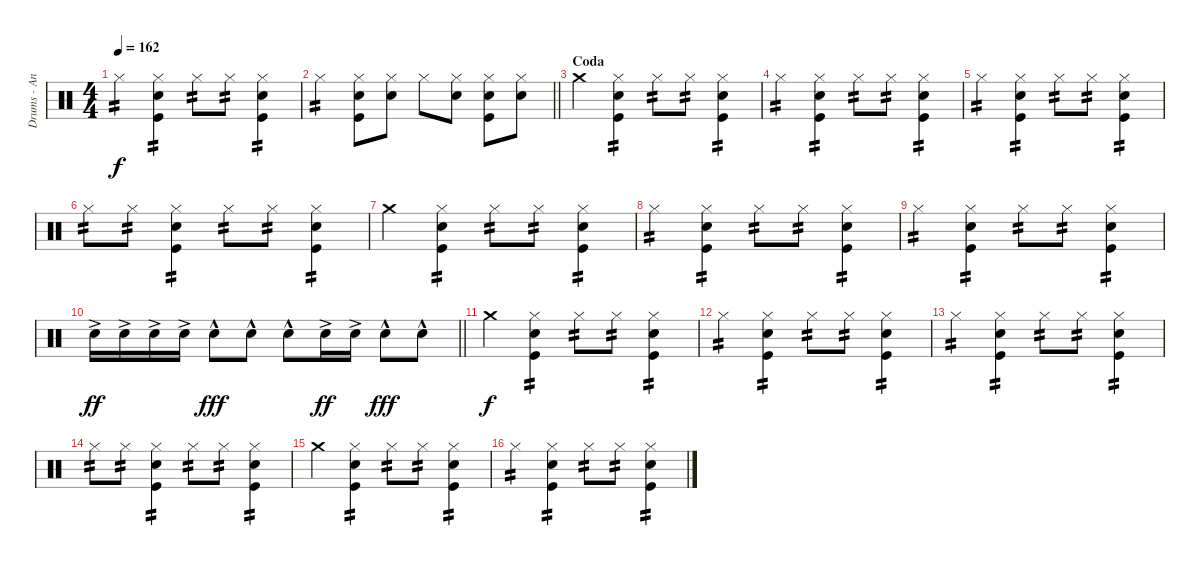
\track ("Drums - Andriushkin" "Drums - An") {instrument percussion}
\staff {score}
\articulation defaults
\ts (4 4)
\tempo 162
\clef neutral
\ks c "Hi-Hat (closed)".4{tp 2 dy f}
("Hi-Hat (closed)" "Electric Snare (hit)" "Kick (hit)").4{tp 2} "Hi-Hat (closed)".8{tp 2} "Hi-Hat (closed)".8{tp 2} ("Hi-Hat (closed)" "Electric Snare (hit)" "Kick (hit)").4{tp 2} |
\barLineRight lightlight "Hi-Hat (closed)".4{tp 2}
("Hi-Hat (closed)" "Electric Snare (hit)" "Kick (hit)").8 ("Hi-Hat (closed)" "Electric Snare (hit)").8 "Hi-Hat (closed)".8 ("Hi-Hat (closed)" "Electric Snare (hit)").8 ("Hi-Hat (closed)" "Electric Snare (hit)" "Kick (hit)").8 ("Hi-Hat (closed)" "Electric Snare (hit)").8 |
\section ("" "Coda")
"Crash medium (hit)".4 ("Hi-Hat (closed)" "Electric Snare (hit)" "Kick (hit)").4{tp 2} "Hi-Hat (closed)".8{tp 2} "Hi-Hat (closed)".8{tp 2} ("Hi-Hat (closed)" "Electric Snare (hit)" "Kick (hit)").4{tp 2} |
"Hi-Hat (closed)".4{tp 2} ("Hi-Hat (closed)" "Electric Snare (hit)" "Kick (hit)").4{tp 2} "Hi-Hat (closed)".8{tp 2} "Hi-Hat (closed)".8{tp 2} ("Hi-Hat (closed)" "Electric Snare (hit)" "Kick (hit)").4{tp 2} |
"Hi-Hat (closed)".4{tp 2} ("Hi-Hat (closed)" "Electric Snare (hit)" "Kick (hit)").4{tp 2} "Hi-Hat (closed)".8{tp 2} "Hi-Hat (closed)".8{tp 2} ("Hi-Hat (closed)" "Electric Snare (hit)" "Kick (hit)").4{tp 2} |
"Hi-Hat (closed)".8{tp 2} "Hi-Hat (closed)".8{tp 2} ("Hi-Hat (closed)" "Electric Snare (hit)" "Kick (hit)").4{tp 2} "Hi-Hat (closed)".8{tp 2} "Hi-Hat (closed)".8{tp 2} ("Hi-Hat (closed)" "Electric Snare (hit)" "Kick (hit)").4{tp 2} |
"Crash medium (hit)".4 ("Hi-Hat (closed)" "Electric Snare (hit)" "Kick (hit)").4{tp 2} "Hi-Hat (closed)".8{tp 2} "Hi-Hat (closed)".8{tp 2} ("Hi-Hat (closed)" "Electric Snare (hit)" "Kick (hit)").4{tp 2} |
"Hi-Hat (closed)".4{tp 2} ("Hi-Hat (closed)" "Electric Snare (hit)" "Kick (hit)").4{tp 2} "Hi-Hat (closed)".8{tp 2} "Hi-Hat (closed)".8{tp 2} ("Hi-Hat (closed)" "Electric Snare (hit)" "Kick (hit)").4{tp 2} |
"Hi-Hat (closed)".4{tp 2} ("Hi-Hat (closed)" "Electric Snare (hit)" "Kick (hit)").4{tp 2} "Hi-Hat (closed)".8{tp 2} "Hi-Hat (closed)".8{tp 2} ("Hi-Hat (closed)" "Electric Snare (hit)" "Kick (hit)").4{tp 2} |
\barLineRight lightlight "Electric Snare (hit)"{ac}.16{dy ff} "Electric Snare (hit)"{ac}.16 "Electric Snare (hit)"{ac}.16 "Electric Snare (hit)"{ac}.16 "Electric Snare (hit)"{hac}.8{dy fff} "Electric Snare (hit)"{hac}.8 "Electric Snare (hit)"{hac}.8 "Electric Snare (hit)"{ac}.16{dy ff} "Electric Snare (hit)"{ac}.16 "Electric Snare (hit)"{hac}.8{dy fff} "Electric Snare (hit)"{hac}.8
|
"Crash medium (hit)".4{dy f} ("Hi-Hat (closed)" "Electric Snare (hit)" "Kick (hit)").4{tp 2} "Hi-Hat (closed)".8{tp 2} "Hi-Hat (closed)".8{tp 2} ("Hi-Hat (closed)" "Electric Snare (hit)" "Kick (hit)").4{tp 2} |
"Hi-Hat (closed)".4{tp 2} ("Hi-Hat (closed)" "Electric Snare (hit)" "Kick (hit)").4{tp 2} "Hi-Hat (closed)".8{tp 2} "Hi-Hat (closed)".8{tp 2} ("Hi-Hat (closed)" "Electric Snare (hit)" "Kick (hit)").4{tp 2} |
"Hi-Hat (closed)".4{tp 2} ("Hi-Hat (closed)" "Electric Snare (hit)" "Kick (hit)").4{tp 2} "Hi-Hat (closed)".8{tp 2} "Hi-Hat (closed)".8{tp 2} ("Hi-Hat (closed)" "Electric Snare (hit)" "Kick (hit)").4{tp 2} |
"Hi-Hat (closed)".8{tp 2} "Hi-Hat (closed)".8{tp 2} ("Hi-Hat (closed)" "Electric Snare (hit)" "Kick (hit)").4{tp 2} "Hi-Hat (closed)".8{tp 2} "Hi-Hat (closed)".8{tp 2} ("Hi-Hat (closed)" "Electric Snare (hit)" "Kick (hit)").4{tp 2} |
"Crash medium (hit)".4 ("Hi-Hat (closed)" "Electric Snare (hit)" "Kick (hit)").4{tp 2} "Hi-Hat (closed)".8{tp 2} "Hi-Hat (closed)".8{tp 2} ("Hi-Hat (closed)" "Electric Snare (hit)" "Kick (hit)").4{tp 2} |
"Hi-Hat (closed)".4{tp 2} ("Hi-Hat (closed)" "Electric Snare (hit)" "Kick (hit)").4{tp 2} "Hi-Hat (closed)".8{tp 2} "Hi-Hat (closed)".8{tp 2} ("Hi-Hat (closed)" "Electric Snare (hit)" "Kick (hit)").4{tp 2}
